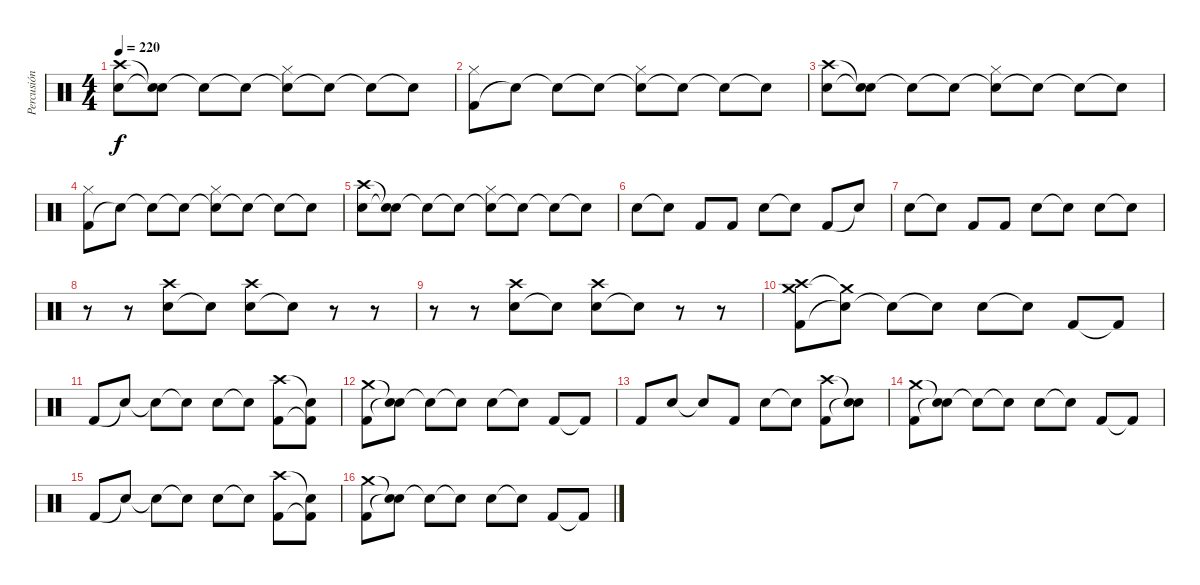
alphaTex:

\track ("Percusión" "Percusión") {instrument percussion}
\staff {score}
\articulation defaults
\ts (4 4)
\tempo 220
\clef neutral
\ks c
("Snare (hit) 2" "Crash high (hit)").8{dy f} ("Snare (hit)"{t} "Snare (hit)"{t}).8 "Snare (hit)"{t}.8 "Snare (hit)"{t}.8 ("Snare (hit)"{t} "Hi-Hat (closed)").8 "Snare (hit)"{t}.8 "Snare (hit)"{t}.8 "Snare (hit)"{t}.8 |
("Kick (hit) 2" "Hi-Hat (closed)").8 "Snare (hit)"{t}.8 "Snare (hit)"{t}.8 "Snare (hit)"{t}.8 ("Snare (hit)"{t} "Hi-Hat (closed)").8 "Snare (hit)"{t}.8 "Snare (hit)"{t}.8 "Snare (hit)"{t}.8 |
("Snare (hit) 2" "Crash high (hit)").8 ("Snare (hit)"{t} "Snare (hit)"{t}).8 "Snare (hit)"{t}.8 "Snare (hit)"{t}.8 ("Snare (hit)"{t} "Hi-Hat (closed)").8 "Snare (hit)"{t}.8 "Snare (hit)"{t}.8 "Snare (hit)"{t}.8 |
("Kick (hit) 2" "Hi-Hat (closed)").8 "Snare (hit)"{t}.8 "Snare (hit)"{t}.8 "Snare (hit)"{t}.8 ("Snare (hit)"{t} "Hi-Hat (closed)").8 "Snare (hit)"{t}.8 "Snare (hit)"{t}.8 "Snare (hit)"{t}.8 |
("Snare (hit) 2" "Crash high (hit)").8 ("Snare (hit)"{t} "Snare (hit)"{t}).8 "Snare (hit)"{t}.8 "Snare (hit)"{t}.8 ("Snare (hit)"{t} "Hi-Hat (closed)").8 "Snare (hit)"{t}.8 "Snare (hit)"{t}.8 "Snare (hit)"{t}.8 |
"Snare (hit) 2".8 "Snare (hit)"{t}.8 "Kick (hit) 2".8 "Kick (hit) 2".8 "Snare (hit) 2".8 "Snare (hit)"{t}.8 "Kick (hit) 2".8 "Snare (hit)"{t}.8 |
"Snare (hit) 2".8 "Snare (hit)"{t}.8 "Kick (hit) 2".8 "Kick (hit) 2".8 "Snare (hit) 2".8 "Snare (hit)"{t}.8 "Snare (hit) 2".8 "Snare (hit)"{t}.8 |
r.8 r.8 ("Snare (hit) 2" "Crash high (hit)").8 "Snare (hit) 2"{t}.8 ("Snare (hit) 2" "Crash high (hit)").8 "Snare (hit)"{t}.8 r.8 r.8 |
r.8 r.8 ("Snare (hit) 2" "Crash high (hit)").8 "Snare (hit) 2"{t}.8 ("Snare (hit) 2" "Crash high (hit)").8 "Snare (hit)"{t}.8 r.8 r.8 |
("Kick (hit) 2" "Crash medium (hit)" "Crash high (hit)").8 ("Snare (hit)"{t} "Crash medium (hit)"{t}).8 "Snare (hit)"{t}.8 "Snare (hit)"{t}.8 "Snare (hit) 2".8 "Snare (hit)"{t}.8 "Kick (hit) 2".8 "Kick (hit) 2"{t}.8 |
"Kick (hit) 2".8 "Snare (hit)"{t}.8 "Snare (hit)"{t}.8 "Snare (hit)"{t}.8 "Snare (hit) 2".8 "Snare (hit)"{t}.8 ("Kick (hit) 2" "Crash high (hit)").8 ("Kick (hit) 2"{t} "Snare (hit)"{t}).8 |
("Kick (hit) 2" "Crash medium (hit)").8 ("Snare (hit)"{t} "Snare (hit)"{t}).8 "Snare (hit)"{t}.8 "Snare (hit)"{t}.8 "Snare (hit) 2".8 "Snare (hit)"{t}.8 "Kick (hit) 2".8 "Kick (hit) 2"{t}.8 |
"Kick (hit) 2".8 "Snare (hit) 2".8 "Snare (hit)"{t}.8 "Kick (hit) 2".8 "Snare (hit) 2".8 "Snare (hit)"{t}.8 ("Kick (hit) 2" "Crash high (hit)").8 ("Snare (hit)"{t} "Snare (hit)"{t}).8 |
("Kick (hit) 2" "Crash medium (hit)").8 ("Snare (hit)"{t} "Snare (hit)"{t}).8 "Snare (hit)"{t}.8 "Snare (hit)"{t}.8 "Snare (hit) 2".8 "Snare (hit)"{t}.8 "Kick (hit) 2".8 "Kick (hit) 2"{t}.8 |
"Kick (hit) 2".8 "Snare (hit)"{t}.8 "Snare (hit)"{t}.8 "Snare (hit)"{t}.8 "Snare (hit) 2".8 "Snare (hit)"{t}.8 ("Kick (hit) 2" "Crash high (hit)").8 ("Kick (hit) 2"{t} "Snare (hit)"{t}).8 |
("Kick (hit) 2" "Crash medium (hit)").8 ("Snare (hit)"{t} "Snare (hit)"{t}).8 "Snare (hit)"{t}.8 "Snare (hit)"{t}.8 "Snare (hit) 2".8 "Snare (hit)"{t}.8 "Kick (hit) 2".8 "Kick (hit) 2"{t}.8
